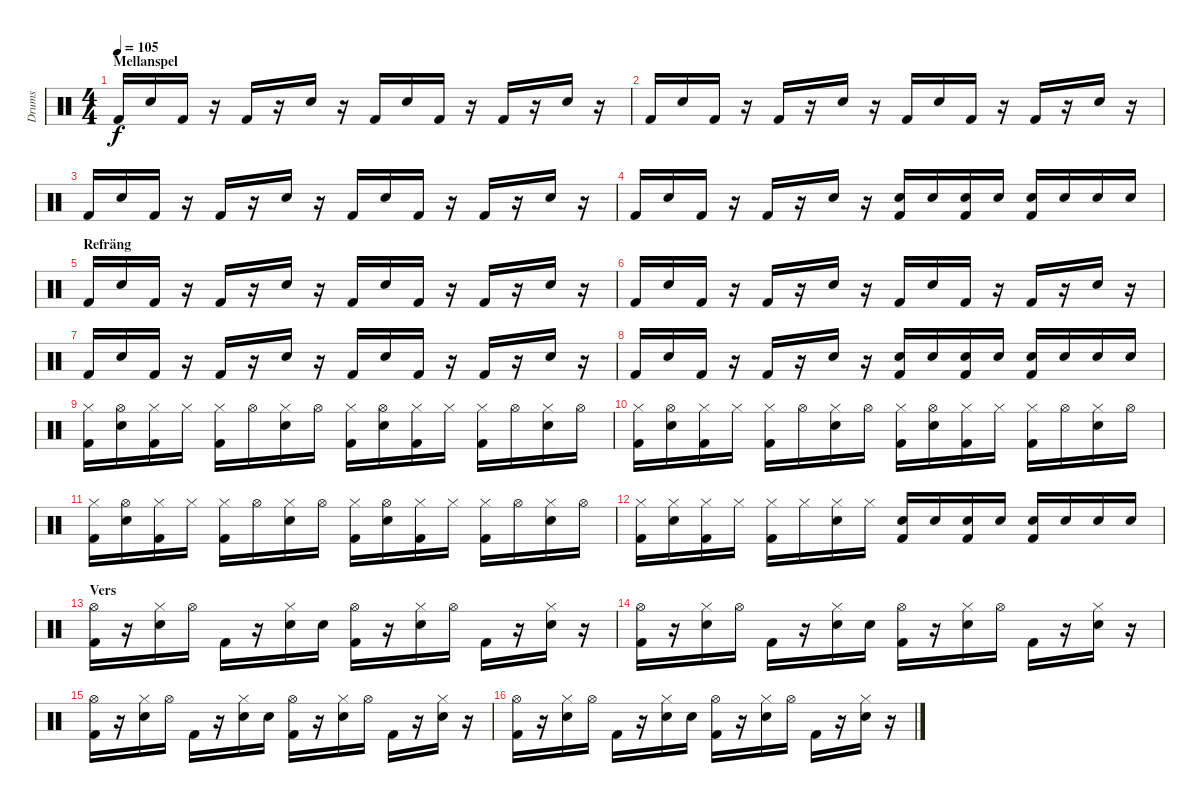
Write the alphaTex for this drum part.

\track ("Drums" "Drums") {instrument percussion}
\staff {score}
\articulation defaults
\ts (4 4)
\section ("" "Mellanspel")
\tempo 105
\clef neutral
\ks c "Kick (hit) 2".16{dy f} "Snare (hit) 2".16 "Kick (hit) 2".16
r.16 "Kick (hit) 2".16 r.16 "Snare (hit) 2".16 r.16 "Kick (hit) 2".16 "Snare (hit) 2".16 "Kick (hit) 2".16 r.16 "Kick (hit) 2".16 r.16 "Snare (hit) 2".16 r.16 |
"Kick (hit) 2".16 "Snare (hit) 2".16 "Kick (hit) 2".16 r.16 "Kick (hit) 2".16 r.16 "Snare (hit) 2".16 r.16 "Kick (hit) 2".16 "Snare (hit) 2".16 "Kick (hit) 2".16 r.16 "Kick (hit) 2".16 r.16 "Snare (hit) 2".16 r.16 |
"Kick (hit) 2".16 "Snare (hit) 2".16 "Kick (hit) 2".16 r.16 "Kick (hit) 2".16 r.16 "Snare (hit) 2".16 r.16 "Kick (hit) 2".16 "Snare (hit) 2".16 "Kick (hit) 2".16 r.16 "Kick (hit) 2".16 r.16 "Snare (hit) 2".16 r.16 |
"Kick (hit) 2".16 "Snare (hit) 2".16 "Kick (hit) 2".16 r.16 "Kick (hit) 2".16 r.16 "Snare (hit) 2".16 r.16 ("Electric Snare (hit)" "Kick (hit) 2").16 "Electric Snare (hit)".16 ("Electric Snare (hit)" "Kick (hit) 2").16 "Electric Snare (hit)".16 ("Electric Snare (hit)" "Kick (hit) 2").16 "Electric Snare (hit)".16 "Electric Snare (hit)".16 "Electric Snare (hit)".16 |
\section ("" "Refräng")
"Kick (hit) 2".16 "Snare (hit) 2".16 "Kick (hit) 2".16 r.16 "Kick (hit) 2".16 r.16 "Snare (hit) 2".16 r.16 "Kick (hit) 2".16 "Snare (hit) 2".16 "Kick (hit) 2".16 r.16 "Kick (hit) 2".16 r.16 "Snare (hit) 2".16 r.16 |
"Kick (hit) 2".16 "Snare (hit) 2".16 "Kick (hit) 2".16 r.16 "Kick (hit) 2".16 r.16 "Snare (hit) 2".16 r.16 "Kick (hit) 2".16 "Snare (hit) 2".16 "Kick (hit) 2".16 r.16 "Kick (hit) 2".16 r.16 "Snare (hit) 2".16 r.16 |
"Kick (hit) 2".16 "Snare (hit) 2".16 "Kick (hit) 2".16 r.16 "Kick (hit) 2".16 r.16 "Snare (hit) 2".16 r.16 "Kick (hit) 2".16 "Snare (hit) 2".16 "Kick (hit) 2".16 r.16 "Kick (hit) 2".16 r.16 "Snare (hit) 2".16 r.16 |
"Kick (hit) 2".16 "Snare (hit) 2".16 "Kick (hit) 2".16 r.16 "Kick (hit) 2".16 r.16 "Snare (hit) 2".16 r.16 ("Electric Snare (hit)" "Kick (hit) 2").16 "Electric Snare (hit)".16 ("Electric Snare (hit)" "Kick (hit) 2").16 "Electric Snare (hit)".16 ("Electric Snare (hit)" "Kick (hit) 2").16 "Electric Snare (hit)".16 "Electric Snare (hit)".16 "Electric Snare (hit)".16 |
("Hi-Hat (closed)" "Kick (hit) 2").16 ("Hi-Hat (open)" "Snare (hit) 2").16 ("Hi-Hat (closed)" "Kick (hit) 2").16 "Hi-Hat (closed)".16 ("Hi-Hat (closed)" "Kick (hit) 2").16 "Hi-Hat (open)".16 ("Hi-Hat (closed)" "Snare (hit) 2").16 "Hi-Hat (open)".16 ("Hi-Hat (closed)" "Kick (hit) 2").16 ("Hi-Hat (open)" "Snare (hit) 2").16 ("Hi-Hat (closed)" "Kick (hit) 2").16 "Hi-Hat (closed)".16 ("Hi-Hat (closed)" "Kick (hit) 2").16 "Hi-Hat (open)".16 ("Hi-Hat (closed)" "Snare (hit) 2").16 "Hi-Hat (open)".16 |
("Hi-Hat (closed)" "Kick (hit) 2").16 ("Hi-Hat (open)" "Snare (hit) 2").16 ("Hi-Hat (closed)" "Kick (hit) 2").16 "Hi-Hat (closed)".16 ("Hi-Hat (closed)" "Kick (hit) 2").16 "Hi-Hat (open)".16 ("Hi-Hat (closed)" "Snare (hit) 2").16 "Hi-Hat (open)".16 ("Hi-Hat (closed)" "Kick (hit) 2").16 ("Hi-Hat (open)" "Snare (hit) 2").16 ("Hi-Hat (closed)" "Kick (hit) 2").16 "Hi-Hat (closed)".16 ("Hi-Hat (closed)" "Kick (hit) 2").16 "Hi-Hat (open)".16 ("Hi-Hat (closed)" "Snare (hit) 2").16 "Hi-Hat (open)".16 |
("Hi-Hat (closed)" "Kick (hit) 2").16 ("Hi-Hat (open)" "Snare (hit) 2").16 ("Hi-Hat (closed)" "Kick (hit) 2").16 "Hi-Hat (closed)".16 ("Hi-Hat (closed)" "Kick (hit) 2").16 "Hi-Hat (open)".16 ("Hi-Hat (closed)" "Snare (hit) 2").16 "Hi-Hat (open)".16 ("Hi-Hat (closed)" "Kick (hit) 2").16 ("Hi-Hat (open)" "Snare (hit) 2").16 ("Hi-Hat (closed)" "Kick (hit) 2").16 "Hi-Hat (closed)".16 ("Hi-Hat (closed)" "Kick (hit) 2").16 "Hi-Hat (open)".16 ("Hi-Hat (closed)" "Snare (hit) 2").16 "Hi-Hat (open)".16 |
("Hi-Hat (closed)" "Kick (hit) 2").16 ("Hi-Hat (closed)" "Snare (hit) 2").16 ("Hi-Hat (closed)" "Kick (hit) 2").16 "Hi-Hat (closed)".16 ("Hi-Hat (closed)" "Kick (hit) 2").16 "Hi-Hat (closed)".16 ("Hi-Hat (closed)" "Snare (hit) 2").16 "Hi-Hat (closed)".16 ("Electric Snare (hit)" "Kick (hit) 2").16 "Electric Snare (hit)".16 ("Electric Snare (hit)" "Kick (hit) 2").16 "Electric Snare (hit)".16 ("Electric Snare (hit)" "Kick (hit) 2").16 "Electric Snare (hit)".16 "Electric Snare (hit)".16 "Electric Snare (hit)".16 |
\section ("" "Vers")
("Hi-Hat (open)" "Kick (hit) 2").16 r.16 ("Hi-Hat (closed)" "Snare (hit) 2").16 "Hi-Hat (open)".16 "Kick (hit) 2".16 r.16 ("Hi-Hat (closed)" "Snare (hit) 2").16 "Snare (hit) 2".16 ("Hi-Hat (open)" "Kick (hit) 2").16 r.16 ("Hi-Hat (closed)" "Snare (hit) 2").16 "Hi-Hat (open)".16 "Kick (hit) 2".16 r.16 ("Hi-Hat (closed)" "Snare (hit) 2").16 r.16 |
("Hi-Hat (open)" "Kick (hit) 2").16 r.16 ("Hi-Hat (closed)" "Snare (hit) 2").16 "Hi-Hat (open)".16 "Kick (hit) 2".16 r.16 ("Hi-Hat (closed)" "Snare (hit) 2").16 "Snare (hit) 2".16 ("Hi-Hat (open)" "Kick (hit) 2").16 r.16 ("Hi-Hat (closed)" "Snare (hit) 2").16 "Hi-Hat (open)".16 "Kick (hit) 2".16 r.16 ("Hi-Hat (closed)" "Snare (hit) 2").16 r.16 |
("Hi-Hat (open)" "Kick (hit) 2").16 r.16 ("Hi-Hat (closed)" "Snare (hit) 2").16 "Hi-Hat (open)".16 "Kick (hit) 2".16 r.16 ("Hi-Hat (closed)" "Snare (hit) 2").16 "Snare (hit) 2".16 ("Hi-Hat (open)" "Kick (hit) 2").16 r.16 ("Hi-Hat (closed)" "Snare (hit) 2").16 "Hi-Hat (open)".16 "Kick (hit) 2".16 r.16 ("Hi-Hat (closed)" "Snare (hit) 2").16 r.16 |
("Hi-Hat (open)" "Kick (hit) 2").16 r.16 ("Hi-Hat (closed)" "Snare (hit) 2").16 "Hi-Hat (open)".16 "Kick (hit) 2".16 r.16 ("Hi-Hat (closed)" "Snare (hit) 2").16 "Snare (hit) 2".16 ("Hi-Hat (open)" "Kick (hit) 2").16 r.16 ("Hi-Hat (closed)" "Snare (hit) 2").16 "Hi-Hat (open)".16 "Kick (hit) 2".16 r.16 ("Hi-Hat (closed)" "Snare (hit) 2").16 r.16
